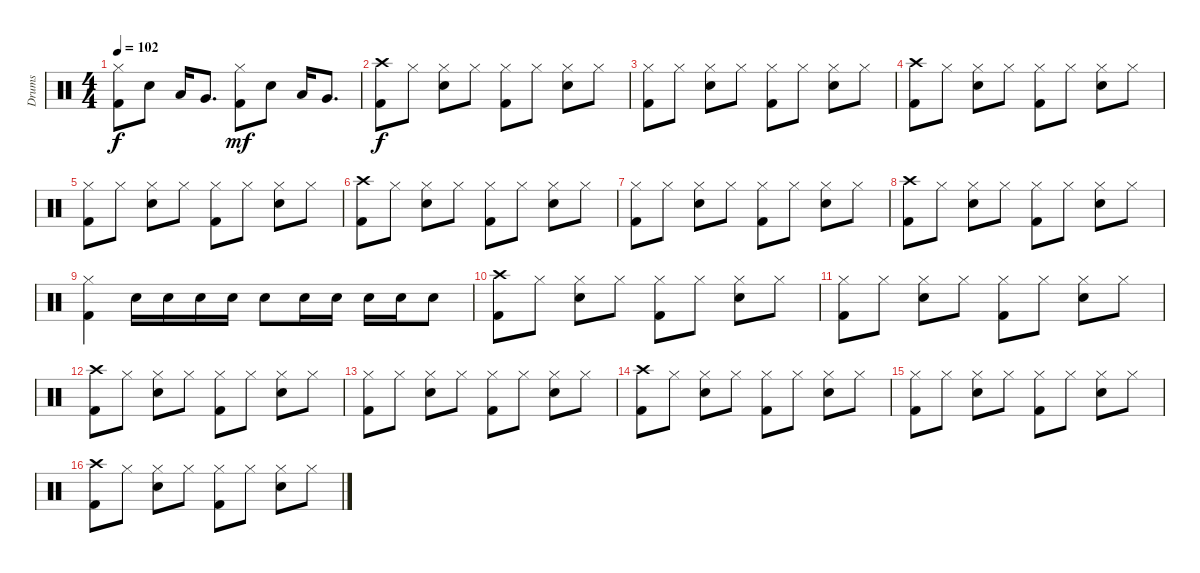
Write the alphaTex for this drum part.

\track ("Drums" "Drums") {instrument percussion}
\staff {score}
\articulation defaults
\ts (4 4)
\tempo 102
\clef neutral
\ks c
("Kick (hit) 2" "Hi-Hat (closed)").8{dy f} "Snare (hit) 2".8 "Low Tom (hit)".16 "Very Low Tom (hit)".8{d} ("Kick (hit) 2" "Hi-Hat (closed)").8{dy mf} "Snare (hit) 2".8 "Low Tom (hit)".16 "Very Low Tom (hit)".8{d} |
("Kick (hit) 2" "Crash high (hit)").8{dy f} "Hi-Hat (closed)".8 ("Snare (hit) 2" "Hi-Hat (closed)").8 "Hi-Hat (closed)".8 ("Kick (hit) 2" "Hi-Hat (closed)").8 "Hi-Hat (closed)".8 ("Snare (hit) 2" "Hi-Hat (closed)").8 "Hi-Hat (closed)".8 |
("Kick (hit) 2" "Hi-Hat (closed)").8 "Hi-Hat (closed)".8 ("Snare (hit) 2" "Hi-Hat (closed)").8 "Hi-Hat (closed)".8 ("Kick (hit) 2" "Hi-Hat (closed)").8 "Hi-Hat (closed)".8 ("Snare (hit) 2" "Hi-Hat (closed)").8 "Hi-Hat (closed)".8 |
("Kick (hit) 2" "Crash high (hit)").8 "Hi-Hat (closed)".8 ("Snare (hit) 2" "Hi-Hat (closed)").8 "Hi-Hat (closed)".8 ("Kick (hit) 2" "Hi-Hat (closed)").8 "Hi-Hat (closed)".8 ("Snare (hit) 2" "Hi-Hat (closed)").8 "Hi-Hat (closed)".8 |
("Kick (hit) 2" "Hi-Hat (closed)").8 "Hi-Hat (closed)".8 ("Snare (hit) 2" "Hi-Hat (closed)").8 "Hi-Hat (closed)".8 ("Kick (hit) 2" "Hi-Hat (closed)").8 "Hi-Hat (closed)".8 ("Snare (hit) 2" "Hi-Hat (closed)").8 "Hi-Hat (closed)".8 |
("Kick (hit) 2" "Crash high (hit)").8 "Hi-Hat (closed)".8 ("Snare (hit) 2" "Hi-Hat (closed)").8 "Hi-Hat (closed)".8 ("Kick (hit) 2" "Hi-Hat (closed)").8 "Hi-Hat (closed)".8 ("Snare (hit) 2" "Hi-Hat (closed)").8 "Hi-Hat (closed)".8 |
("Kick (hit) 2" "Hi-Hat (closed)").8 "Hi-Hat (closed)".8 ("Snare (hit) 2" "Hi-Hat (closed)").8 "Hi-Hat (closed)".8 ("Kick (hit) 2" "Hi-Hat (closed)").8 "Hi-Hat (closed)".8 ("Snare (hit) 2" "Hi-Hat (closed)").8 "Hi-Hat (closed)".8 |
("Kick (hit) 2" "Crash high (hit)").8 "Hi-Hat (closed)".8 ("Snare (hit) 2" "Hi-Hat (closed)").8 "Hi-Hat (closed)".8 ("Kick (hit) 2" "Hi-Hat (closed)").8 "Hi-Hat (closed)".8 ("Snare (hit) 2" "Hi-Hat (closed)").8 "Hi-Hat (closed)".8 |
("Kick (hit) 2" "Hi-Hat (closed)").4 "Snare (hit) 2".16 "Snare (hit) 2".16 "Snare (hit) 2".16 "Snare (hit) 2".16 "Snare (hit) 2".8 "Snare (hit) 2".16 "Snare (hit) 2".16 "Snare (hit) 2".16 "Snare (hit) 2".16 "Snare (hit) 2".8 |
("Kick (hit) 2" "Crash high (hit)").8 "Hi-Hat (closed)".8 ("Snare (hit) 2" "Hi-Hat (closed)").8 "Hi-Hat (closed)".8 ("Kick (hit) 2" "Hi-Hat (closed)").8 "Hi-Hat (closed)".8 ("Snare (hit) 2" "Hi-Hat (closed)").8 "Hi-Hat (closed)".8 |
("Kick (hit) 2" "Hi-Hat (closed)").8 "Hi-Hat (closed)".8 ("Snare (hit) 2" "Hi-Hat (closed)").8 "Hi-Hat (closed)".8 ("Kick (hit) 2" "Hi-Hat (closed)").8 "Hi-Hat (closed)".8 ("Snare (hit) 2" "Hi-Hat (closed)").8 "Hi-Hat (closed)".8 |
("Kick (hit) 2" "Crash high (hit)").8 "Hi-Hat (closed)".8 ("Snare (hit) 2" "Hi-Hat (closed)").8 "Hi-Hat (closed)".8 ("Kick (hit) 2" "Hi-Hat (closed)").8 "Hi-Hat (closed)".8 ("Snare (hit) 2" "Hi-Hat (closed)").8 "Hi-Hat (closed)".8 |
("Kick (hit) 2" "Hi-Hat (closed)").8 "Hi-Hat (closed)".8 ("Snare (hit) 2" "Hi-Hat (closed)").8 "Hi-Hat (closed)".8 ("Kick (hit) 2" "Hi-Hat (closed)").8 "Hi-Hat (closed)".8 ("Snare (hit) 2" "Hi-Hat (closed)").8 "Hi-Hat (closed)".8 |
("Kick (hit) 2" "Crash high (hit)").8 "Hi-Hat (closed)".8 ("Snare (hit) 2" "Hi-Hat (closed)").8 "Hi-Hat (closed)".8 ("Kick (hit) 2" "Hi-Hat (closed)").8 "Hi-Hat (closed)".8 ("Snare (hit) 2" "Hi-Hat (closed)").8 "Hi-Hat (closed)".8 |
("Kick (hit) 2" "Hi-Hat (closed)").8 "Hi-Hat (closed)".8 ("Snare (hit) 2" "Hi-Hat (closed)").8 "Hi-Hat (closed)".8 ("Kick (hit) 2" "Hi-Hat (closed)").8 "Hi-Hat (closed)".8 ("Snare (hit) 2" "Hi-Hat (closed)").8 "Hi-Hat (closed)".8 |
("Kick (hit) 2" "Crash high (hit)").8 "Hi-Hat (closed)".8 ("Snare (hit) 2" "Hi-Hat (closed)").8 "Hi-Hat (closed)".8 ("Kick (hit) 2" "Hi-Hat (closed)").8 "Hi-Hat (closed)".8 ("Snare (hit) 2" "Hi-Hat (closed)").8 "Hi-Hat (closed)".8
